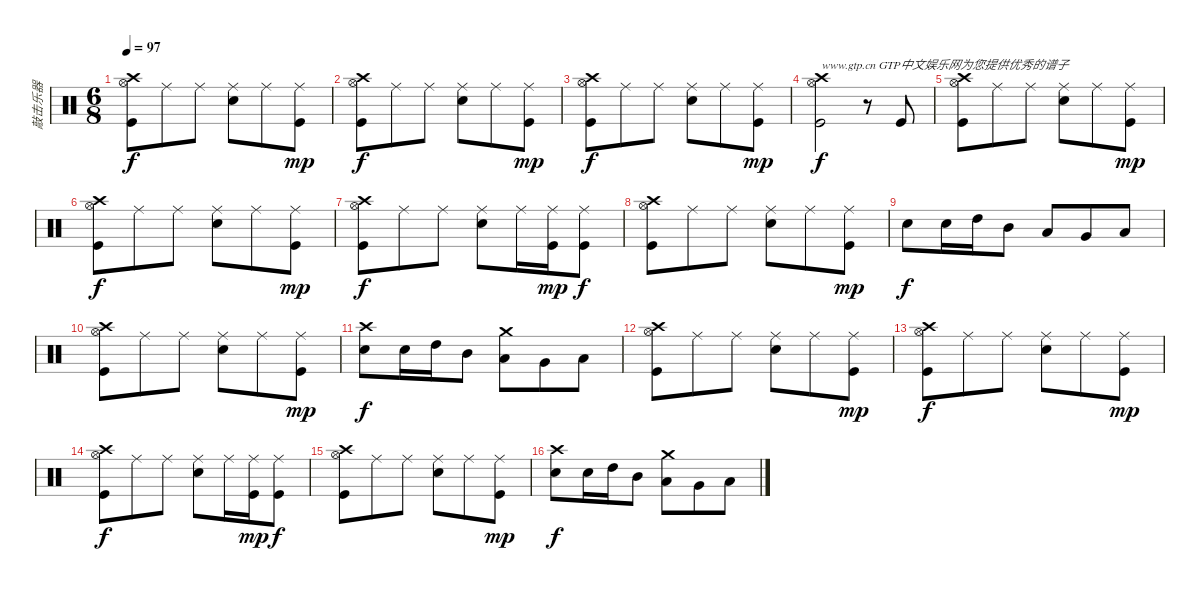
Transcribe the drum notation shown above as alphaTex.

\track ("敲击乐器" "敲击乐器") {instrument percussion}
\staff {score}
\articulation defaults
\ts (6 8)
\tempo 97
\clef neutral
\ks c
("Crash high (hit)" "Hi-Hat (open)" "Kick (hit)").8{dy f} "Ride (middle)".8 "Ride (middle)".8 ("Ride (middle)" "Electric Snare (hit)").8 "Ride (middle)".8 ("Ride (middle)" "Kick (hit)").8{dy mp} |
("Crash high (hit)" "Hi-Hat (open)" "Kick (hit)").8{dy f} "Ride (middle)".8 "Ride (middle)".8 ("Ride (middle)" "Electric Snare (hit)").8 "Ride (middle)".8 ("Ride (middle)" "Kick (hit)").8{dy mp} |
("Crash high (hit)" "Hi-Hat (open)" "Kick (hit)").8{dy f} "Ride (middle)".8 "Ride (middle)".8 ("Ride (middle)" "Electric Snare (hit)").8 "Ride (middle)".8 ("Ride (middle)" "Kick (hit)").8{dy mp} |
("Crash high (hit)" "Hi-Hat (open)" "Kick (hit)").2{txt "www.gtp.cn GTP中文娱乐网为您提供优秀的谱子" dy f} r.8 "Kick (hit)".8 |
("Crash high (hit)" "Hi-Hat (open)" "Kick (hit)").8 "Ride (middle)".8 "Ride (middle)".8 ("Ride (middle)" "Electric Snare (hit)").8 "Ride (middle)".8 ("Ride (middle)" "Kick (hit)").8{dy mp} |
("Crash high (hit)" "Hi-Hat (open)" "Kick (hit)").8{dy f} "Ride (middle)".8 "Ride (middle)".8 ("Ride (middle)" "Electric Snare (hit)").8 "Ride (middle)".8 ("Ride (middle)" "Kick (hit)").8{dy mp} |
("Crash high (hit)" "Hi-Hat (open)" "Kick (hit)").8{dy f} "Ride (middle)".8 "Ride (middle)".8 ("Ride (middle)" "Electric Snare (hit)").8 "Ride (middle)".16 ("Ride (middle)" "Kick (hit)").16{dy mp} ("Ride (middle)" "Kick (hit)").8{dy f} |
("Crash high (hit)" "Hi-Hat (open)" "Kick (hit)").8 "Ride (middle)".8 "Ride (middle)".8 ("Ride (middle)" "Electric Snare (hit)").8 "Ride (middle)".8 ("Ride (middle)" "Kick (hit)").8{dy mp} |
"Electric Snare (hit)".8{dy f} "Electric Snare (hit)".16 "High Tom (hit)".16 "Mid Tom (hit)".8 "Low Tom (hit)".8 "Very Low Tom (hit)".8 "Low Floor Tom (hit)".8 |
("Crash high (hit)" "Hi-Hat (open)" "Kick (hit)").8 "Ride (middle)".8 "Ride (middle)".8 ("Ride (middle)" "Electric Snare (hit)").8 "Ride (middle)".8 ("Ride (middle)" "Kick (hit)").8{dy mp} |
("Crash high (hit)" "Electric Snare (hit)").8{dy f} "Electric Snare (hit)".16 "High Tom (hit)".16 "Mid Tom (hit)".8 ("Crash medium (hit)" "Low Tom (hit)").8 "Very Low Tom (hit)".8 "Low Floor Tom (hit)".8 |
("Crash high (hit)" "Hi-Hat (open)" "Kick (hit)").8 "Ride (middle)".8 "Ride (middle)".8 ("Ride (middle)" "Electric Snare (hit)").8 "Ride (middle)".8 ("Ride (middle)" "Kick (hit)").8{dy mp} |
("Crash high (hit)" "Hi-Hat (open)" "Kick (hit)").8{dy f} "Ride (middle)".8 "Ride (middle)".8 ("Ride (middle)" "Electric Snare (hit)").8 "Ride (middle)".8 ("Ride (middle)" "Kick (hit)").8{dy mp} |
("Crash high (hit)" "Hi-Hat (open)" "Kick (hit)").8{dy f} "Ride (middle)".8 "Ride (middle)".8 ("Ride (middle)" "Electric Snare (hit)").8 "Ride (middle)".16 ("Ride (middle)" "Kick (hit)").16{dy mp} ("Ride (middle)" "Kick (hit)").8{dy f} |
("Crash high (hit)" "Hi-Hat (open)" "Kick (hit)").8 "Ride (middle)".8 "Ride (middle)".8 ("Ride (middle)" "Electric Snare (hit)").8 "Ride (middle)".8 ("Ride (middle)" "Kick (hit)").8{dy mp} |
("Crash high (hit)" "Electric Snare (hit)").8{dy f} "Electric Snare (hit)".16 "High Tom (hit)".16 "Mid Tom (hit)".8 ("Crash medium (hit)" "Low Tom (hit)").8 "Very Low Tom (hit)".8 "Low Floor Tom (hit)".8
